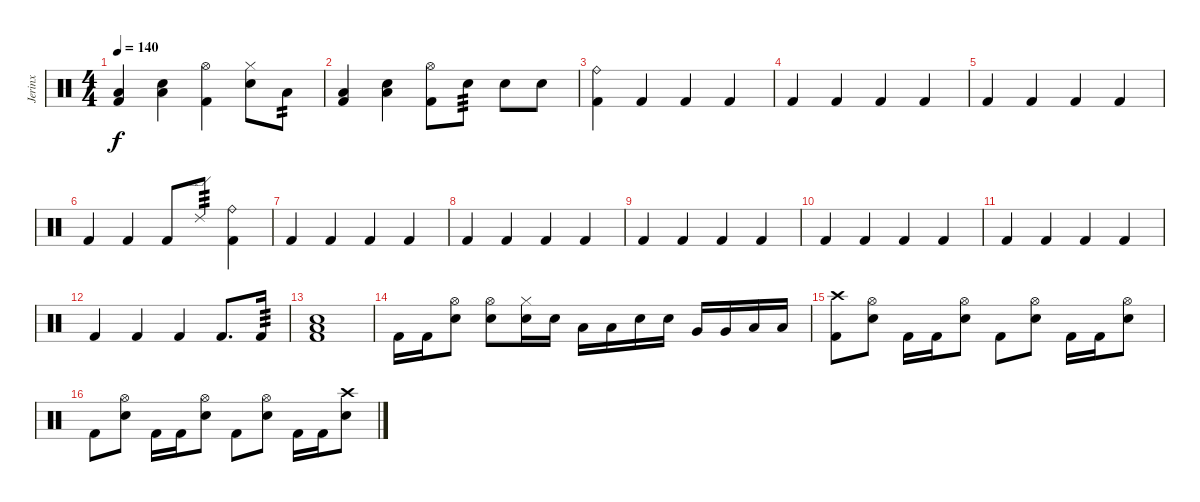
\track ("Jerinx" "Jerinx") {instrument percussion}
\staff {score}
\articulation defaults
\ts (4 4)
\tempo 140
\clef neutral
\ks c
("Low Floor Tom (hit)" "Kick (hit) 2").4{dy f} ("Low Floor Tom (hit)" "Electric Snare (hit)").4 ("Hi-Hat (open)" "Kick (hit) 2").4 ("Hi-Hat (closed)" "Electric Snare (hit)").8 "Low Floor Tom (hit)".8{tp 2} |
("Low Floor Tom (hit)" "Kick (hit) 2").4 ("Low Floor Tom (hit)" "Electric Snare (hit)").4 ("Hi-Hat (open)" "Kick (hit) 2").8 "Electric Snare (hit)".8{tp 3} "Electric Snare (hit)".8 "Electric Snare (hit)".8 |
("Ride (bell)" "Kick (hit) 2").4 "Kick (hit) 2".4 "Kick (hit) 2".4 "Kick (hit) 2".4 |
"Kick (hit) 2".4 "Kick (hit) 2".4 "Kick (hit) 2".4 "Kick (hit) 2".4 |
"Kick (hit) 2".4 "Kick (hit) 2".4 "Kick (hit) 2".4 "Kick (hit) 2".4 |
"Kick (hit) 2".4 "Kick (hit) 2".4 "Kick (hit) 2".8 "Ride (edge) 2".8{tp 3} ("Ride (bell)" "Kick (hit) 2").4 |
"Kick (hit) 2".4 "Kick (hit) 2".4 "Kick (hit) 2".4 "Kick (hit) 2".4 |
"Kick (hit) 2".4 "Kick (hit) 2".4 "Kick (hit) 2".4 "Kick (hit) 2".4 |
"Kick (hit) 2".4 "Kick (hit) 2".4 "Kick (hit) 2".4 "Kick (hit) 2".4 |
"Kick (hit) 2".4 "Kick (hit) 2".4 "Kick (hit) 2".4 "Kick (hit) 2".4 |
"Kick (hit) 2".4 "Kick (hit) 2".4 "Kick (hit) 2".4 "Kick (hit) 2".4 |
"Kick (hit) 2".4 "Kick (hit) 2".4 "Kick (hit) 2".4 "Kick (hit) 2".8{d} "Kick (hit) 2".16{tp 3} |
("Low Floor Tom (hit)" "Electric Snare (hit)" "Kick (hit) 2").1 |
"Kick (hit) 2".16 "Kick (hit) 2".16 ("Hi-Hat (open)" "Electric Snare (hit)").8 ("Hi-Hat (open)" "Electric Snare (hit)").8 ("Hi-Hat (closed)" "Electric Snare (hit)").16 "Electric Snare (hit)".16 "Low Tom (hit)".16 "Low Tom (hit)".16 "Electric Snare (hit)".16 "Electric Snare (hit)".16 "Very Low Tom (hit)".16 "Very Low Tom (hit)".16 "Low Floor Tom (hit)".16 "Low Floor Tom (hit)".16 |
("Crash high (hit)" "Kick (hit) 2").8 ("Hi-Hat (open)" "Electric Snare (hit)").8 "Kick (hit) 2".16 "Kick (hit) 2".16 ("Hi-Hat (open)" "Electric Snare (hit)").8 "Kick (hit) 2".8 ("Hi-Hat (open)" "Electric Snare (hit)").8 "Kick (hit) 2".16 "Kick (hit) 2".16 ("Hi-Hat (open)" "Electric Snare (hit)").8 |
"Kick (hit) 2".8 ("Hi-Hat (open)" "Electric Snare (hit)").8 "Kick (hit) 2".16 "Kick (hit) 2".16 ("Hi-Hat (open)" "Electric Snare (hit)").8 "Kick (hit) 2".8 ("Hi-Hat (open)" "Electric Snare (hit)").8 "Kick (hit) 2".16 "Kick (hit) 2".16 ("Crash high (hit)" "Electric Snare (hit)").8
